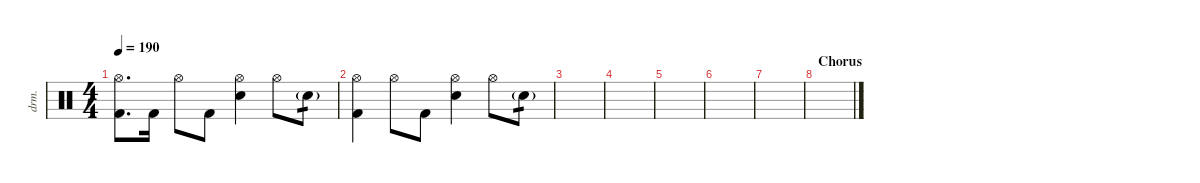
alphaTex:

\defaultSystemsLayout 4
\hideDynamics
\bracketExtendMode nobrackets
\track ("伊地知虹夏" "drm.") {solo instrument percussion}
\staff {score}
\articulation defaults
\ts (4 4)
\tempo 190
\clef neutral
\ks c
("Kick (hit) 2" "Hi-Hat (open)").8{d dy mf beam Down} "Kick (hit) 2".16{beam Down} "Hi-Hat (open)".8{beam Down} "Kick (hit) 2".8{beam Down} ("Hi-Hat (open)" "Snare (hit) 2").4{beam Down} "Hi-Hat (open)".8{beam Down} "Snare (hit) 2"{g}.8{tp 1 beam Down} |
("Kick (hit) 2" "Hi-Hat (open)").4{beam Down} "Hi-Hat (open)".8{beam Down} "Kick (hit) 2".8{beam Down} ("Hi-Hat (open)" "Snare (hit) 2").4{beam Down} "Hi-Hat (open)".8{beam Down} "Snare (hit) 2"{g}.8{tp 1 beam Down} |
|
|
|
|
|
\section ("" "Chorus")
